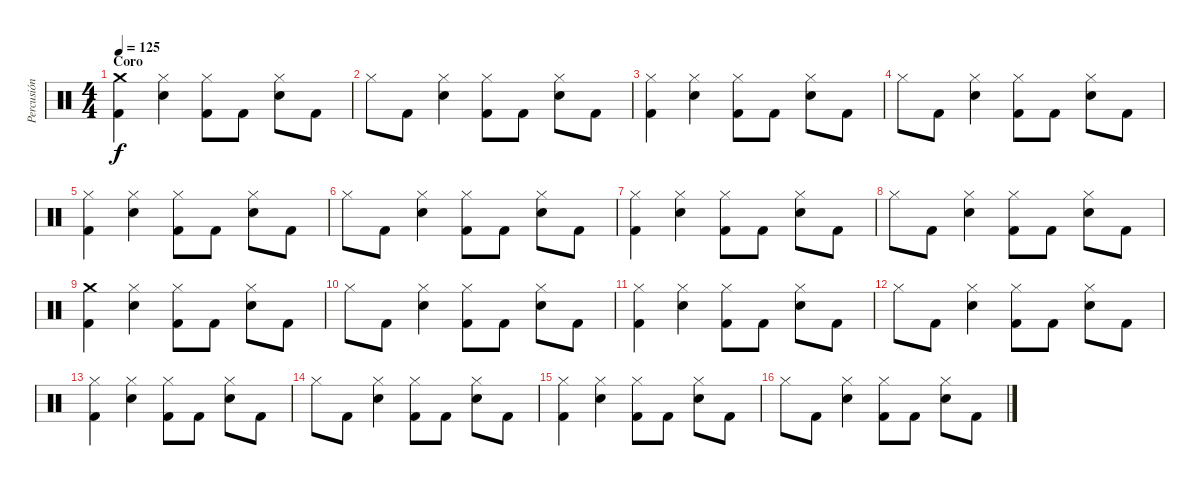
\track ("Percusión" "Percusión") {instrument percussion}
\staff {score}
\articulation defaults
\ts (4 4)
\section ("" "Coro")
\tempo 125
\clef neutral
\ks c
("Crash medium (hit)" "Kick (hit) 2").4{dy f} ("Snare (hit) 2" "Hi-Hat (closed)").4 ("Kick (hit) 2" "Hi-Hat (closed)").8 "Kick (hit) 2".8 ("Hi-Hat (closed)" "Snare (hit) 2").8 "Kick (hit) 2".8 |
"Hi-Hat (closed)".8 "Kick (hit) 2".8 ("Hi-Hat (closed)" "Snare (hit) 2").4 ("Hi-Hat (closed)" "Kick (hit) 2").8 "Kick (hit) 2".8 ("Hi-Hat (closed)" "Snare (hit) 2").8 "Kick (hit) 2".8 |
("Hi-Hat (closed)" "Kick (hit) 2").4 ("Snare (hit) 2" "Hi-Hat (closed)").4 ("Kick (hit) 2" "Hi-Hat (closed)").8 "Kick (hit) 2".8 ("Hi-Hat (closed)" "Snare (hit) 2").8 "Kick (hit) 2".8 |
"Hi-Hat (closed)".8 "Kick (hit) 2".8 ("Hi-Hat (closed)" "Snare (hit) 2").4 ("Hi-Hat (closed)" "Kick (hit) 2").8 "Kick (hit) 2".8 ("Hi-Hat (closed)" "Snare (hit) 2").8 "Kick (hit) 2".8 |
("Hi-Hat (closed)" "Kick (hit) 2").4 ("Snare (hit) 2" "Hi-Hat (closed)").4 ("Kick (hit) 2" "Hi-Hat (closed)").8 "Kick (hit) 2".8 ("Hi-Hat (closed)" "Snare (hit) 2").8 "Kick (hit) 2".8 |
"Hi-Hat (closed)".8 "Kick (hit) 2".8 ("Hi-Hat (closed)" "Snare (hit) 2").4 ("Hi-Hat (closed)" "Kick (hit) 2").8 "Kick (hit) 2".8 ("Hi-Hat (closed)" "Snare (hit) 2").8 "Kick (hit) 2".8 |
("Hi-Hat (closed)" "Kick (hit) 2").4 ("Snare (hit) 2" "Hi-Hat (closed)").4 ("Kick (hit) 2" "Hi-Hat (closed)").8 "Kick (hit) 2".8 ("Hi-Hat (closed)" "Snare (hit) 2").8 "Kick (hit) 2".8 |
"Hi-Hat (closed)".8 "Kick (hit) 2".8 ("Hi-Hat (closed)" "Snare (hit) 2").4 ("Hi-Hat (closed)" "Kick (hit) 2").8 "Kick (hit) 2".8 ("Hi-Hat (closed)" "Snare (hit) 2").8 "Kick (hit) 2".8 |
("Crash medium (hit)" "Kick (hit) 2").4 ("Snare (hit) 2" "Hi-Hat (closed)").4 ("Kick (hit) 2" "Hi-Hat (closed)").8 "Kick (hit) 2".8 ("Hi-Hat (closed)" "Snare (hit) 2").8 "Kick (hit) 2".8 |
"Hi-Hat (closed)".8 "Kick (hit) 2".8 ("Hi-Hat (closed)" "Snare (hit) 2").4 ("Hi-Hat (closed)" "Kick (hit) 2").8 "Kick (hit) 2".8 ("Hi-Hat (closed)" "Snare (hit) 2").8 "Kick (hit) 2".8 |
("Hi-Hat (closed)" "Kick (hit) 2").4 ("Snare (hit) 2" "Hi-Hat (closed)").4 ("Kick (hit) 2" "Hi-Hat (closed)").8 "Kick (hit) 2".8 ("Hi-Hat (closed)" "Snare (hit) 2").8 "Kick (hit) 2".8 |
"Hi-Hat (closed)".8 "Kick (hit) 2".8 ("Hi-Hat (closed)" "Snare (hit) 2").4 ("Hi-Hat (closed)" "Kick (hit) 2").8 "Kick (hit) 2".8 ("Hi-Hat (closed)" "Snare (hit) 2").8 "Kick (hit) 2".8 |
("Hi-Hat (closed)" "Kick (hit) 2").4 ("Snare (hit) 2" "Hi-Hat (closed)").4 ("Kick (hit) 2" "Hi-Hat (closed)").8 "Kick (hit) 2".8 ("Hi-Hat (closed)" "Snare (hit) 2").8 "Kick (hit) 2".8 |
"Hi-Hat (closed)".8 "Kick (hit) 2".8 ("Hi-Hat (closed)" "Snare (hit) 2").4 ("Hi-Hat (closed)" "Kick (hit) 2").8 "Kick (hit) 2".8 ("Hi-Hat (closed)" "Snare (hit) 2").8 "Kick (hit) 2".8 |
("Hi-Hat (closed)" "Kick (hit) 2").4 ("Snare (hit) 2" "Hi-Hat (closed)").4 ("Kick (hit) 2" "Hi-Hat (closed)").8 "Kick (hit) 2".8 ("Hi-Hat (closed)" "Snare (hit) 2").8 "Kick (hit) 2".8 |
"Hi-Hat (closed)".8 "Kick (hit) 2".8 ("Hi-Hat (closed)" "Snare (hit) 2").4 ("Hi-Hat (closed)" "Kick (hit) 2").8 "Kick (hit) 2".8 ("Hi-Hat (closed)" "Snare (hit) 2").8 "Kick (hit) 2".8
